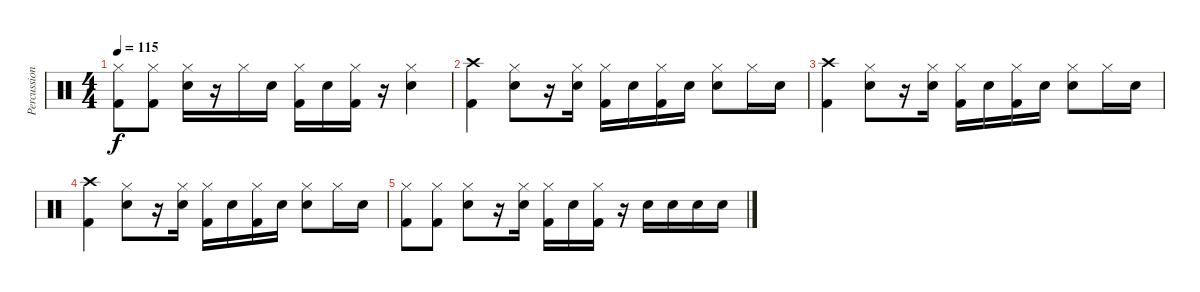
\track ("Percussion" "Percussion") {instrument percussion}
\staff {score}
\articulation defaults
\ts (4 4)
\tempo 115
\clef neutral
\ks c
("Hi-Hat (closed)" "Kick (hit) 2").8{dy f} ("Hi-Hat (closed)" "Kick (hit) 2").8 ("Hi-Hat (closed)" "Snare (hit) 2").16 r.16 "Hi-Hat (closed)".16 "Snare (hit) 2".16 ("Hi-Hat (closed)" "Kick (hit) 2").16 "Snare (hit) 2".16 ("Hi-Hat (closed)" "Kick (hit) 2").16 r.16 ("Hi-Hat (closed)" "Snare (hit) 2").4 |
("Crash high (hit)" "Kick (hit) 2").4 ("Hi-Hat (closed)" "Snare (hit) 2").8 r.16 ("Hi-Hat (closed)" "Snare (hit) 2").16 ("Hi-Hat (closed)" "Kick (hit) 2").16 "Snare (hit) 2".16 ("Hi-Hat (closed)" "Kick (hit) 2").16 "Snare (hit)".16 ("Hi-Hat (closed)" "Snare (hit) 2").8 "Hi-Hat (closed)".16 "Snare (hit) 2".16 |
("Crash high (hit)" "Kick (hit) 2").4 ("Hi-Hat (closed)" "Snare (hit) 2").8 r.16 ("Hi-Hat (closed)" "Snare (hit) 2").16 ("Hi-Hat (closed)" "Kick (hit) 2").16 "Snare (hit) 2".16 ("Hi-Hat (closed)" "Kick (hit) 2").16 "Snare (hit)".16 ("Hi-Hat (closed)" "Snare (hit) 2").8 "Hi-Hat (closed)".16 "Snare (hit) 2".16 |
("Crash high (hit)" "Kick (hit) 2").4 ("Hi-Hat (closed)" "Snare (hit) 2").8 r.16 ("Hi-Hat (closed)" "Snare (hit) 2").16 ("Hi-Hat (closed)" "Kick (hit) 2").16 "Snare (hit) 2".16 ("Hi-Hat (closed)" "Kick (hit) 2").16 "Snare (hit)".16 ("Hi-Hat (closed)" "Snare (hit) 2").8 "Hi-Hat (closed)".16 "Snare (hit) 2".16 |
("Hi-Hat (closed)" "Kick (hit) 2").8 ("Hi-Hat (closed)" "Kick (hit) 2").8 ("Hi-Hat (closed)" "Snare (hit) 2").8 r.16 ("Hi-Hat (closed)" "Snare (hit) 2").16 ("Hi-Hat (closed)" "Kick (hit) 2").16 "Snare (hit) 2".16 ("Hi-Hat (closed)" "Kick (hit) 2").16 r.16 "Snare (hit) 2".16 "Snare (hit) 2".16 "Snare (hit) 2".16 "Snare (hit) 2".16
